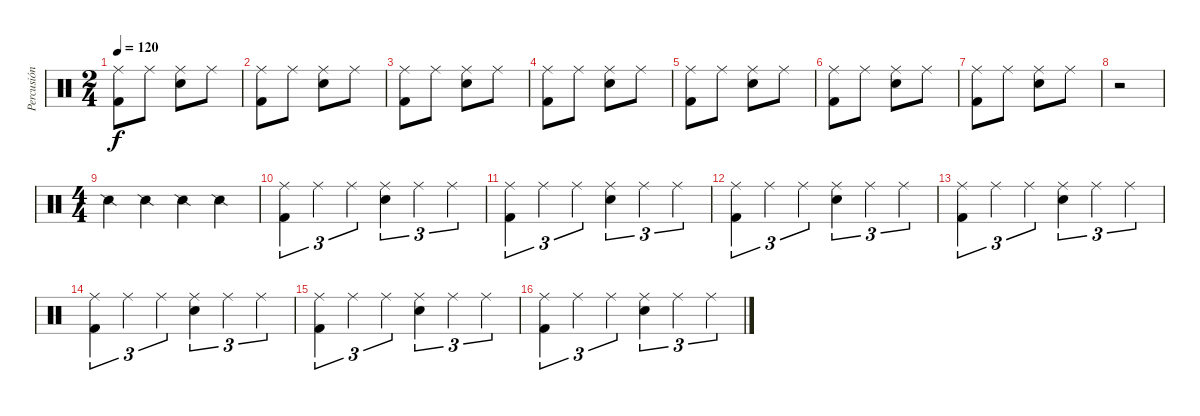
\track ("Percusión" "Percusión") {instrument percussion}
\staff {score}
\articulation defaults
\ts (2 4)
\tempo 120
\clef neutral
\ks c
("Kick (hit) 2" "Ride (middle)").8{dy f} "Ride (middle)".8 ("Snare (hit) 2" "Ride (middle)").8 "Ride (middle)".8 |
("Kick (hit) 2" "Ride (middle)").8 "Ride (middle)".8 ("Snare (hit) 2" "Ride (middle)").8 "Ride (middle)".8 |
("Kick (hit) 2" "Ride (middle)").8 "Ride (middle)".8 ("Snare (hit) 2" "Ride (middle)").8 "Ride (middle)".8 |
("Kick (hit) 2" "Ride (middle)").8 "Ride (middle)".8 ("Snare (hit) 2" "Ride (middle)").8 "Ride (middle)".8 |
("Kick (hit) 2" "Ride (middle)").8 "Ride (middle)".8 ("Snare (hit) 2" "Ride (middle)").8 "Ride (middle)".8 |
("Kick (hit) 2" "Ride (middle)").8 "Ride (middle)".8 ("Snare (hit) 2" "Ride (middle)").8 "Ride (middle)".8 |
("Kick (hit) 2" "Ride (middle)").8 "Ride (middle)".8 ("Snare (hit) 2" "Ride (middle)").8 "Ride (middle)".8 |
r.2 |
\ts (4 4)
"Snare (side stick) 2".4 "Snare (side stick) 2".4 "Snare (side stick) 2".4 "Snare (side stick) 2".4 |
("Kick (hit) 2" "Ride (middle)").4{tu (3 2)} "Ride (middle)".4{tu (3 2)} "Ride (middle)".4{tu (3 2)} ("Snare (hit) 2" "Ride (middle)").4{tu (3 2)} "Ride (middle)".4{tu (3 2)} "Ride (middle)".4{tu (3 2)} |
("Kick (hit) 2" "Ride (middle)").4{tu (3 2)} "Ride (middle)".4{tu (3 2)} "Ride (middle)".4{tu (3 2)} ("Snare (hit) 2" "Ride (middle)").4{tu (3 2)} "Ride (middle)".4{tu (3 2)} "Ride (middle)".4{tu (3 2)} |
("Kick (hit) 2" "Ride (middle)").4{tu (3 2)} "Ride (middle)".4{tu (3 2)} "Ride (middle)".4{tu (3 2)} ("Snare (hit) 2" "Ride (middle)").4{tu (3 2)} "Ride (middle)".4{tu (3 2)} "Ride (middle)".4{tu (3 2)} |
("Kick (hit) 2" "Ride (middle)").4{tu (3 2)} "Ride (middle)".4{tu (3 2)} "Ride (middle)".4{tu (3 2)} ("Snare (hit) 2" "Ride (middle)").4{tu (3 2)} "Ride (middle)".4{tu (3 2)} "Ride (middle)".4{tu (3 2)} |
("Kick (hit) 2" "Ride (middle)").4{tu (3 2)} "Ride (middle)".4{tu (3 2)} "Ride (middle)".4{tu (3 2)} ("Snare (hit) 2" "Ride (middle)").4{tu (3 2)} "Ride (middle)".4{tu (3 2)} "Ride (middle)".4{tu (3 2)} |
("Kick (hit) 2" "Ride (middle)").4{tu (3 2)} "Ride (middle)".4{tu (3 2)} "Ride (middle)".4{tu (3 2)} ("Snare (hit) 2" "Ride (middle)").4{tu (3 2)} "Ride (middle)".4{tu (3 2)} "Ride (middle)".4{tu (3 2)} |
("Kick (hit) 2" "Ride (middle)").4{tu (3 2)} "Ride (middle)".4{tu (3 2)} "Ride (middle)".4{tu (3 2)} ("Snare (hit) 2" "Ride (middle)").4{tu (3 2)} "Ride (middle)".4{tu (3 2)} "Ride (middle)".4{tu (3 2)}
